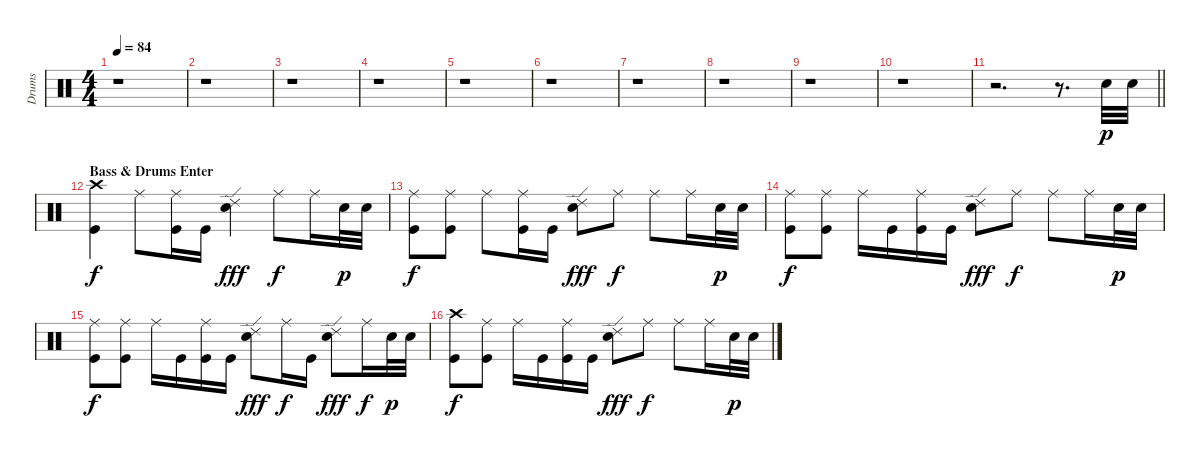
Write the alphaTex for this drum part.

\track ("Drums" "Drums") {instrument percussion}
\staff {score}
\articulation defaults
\ts (4 4)
\tempo 84
\clef neutral
\ks c
r.1{dy p} |
r.1 |
r.1 |
r.1 |
r.1 |
r.1 |
r.1 |
r.1 |
r.1 |
r.1 |
\barLineRight lightlight
r.2{d} r.8{d} "Electric Snare (hit)".32 "Electric Snare (hit)".32 |
\section ("" "Bass & Drums Enter")
("Crash high (hit)" "Kick (hit)").4{dy f} "Ride (middle)".8 ("Ride (middle)" "Kick (hit)").16 "Kick (hit)".16 ("Ride (edge) 2" "Electric Snare (hit)").4{dy fff} "Ride (middle)".8{dy f} "Ride (middle)".16 "Electric Snare (hit)".32{dy p} "Electric Snare (hit)".32 |
("Ride (middle)" "Kick (hit)").8{dy f} ("Ride (middle)" "Kick (hit)").8 "Ride (middle)".8 ("Ride (middle)" "Kick (hit)").16 "Kick (hit)".16 ("Ride (edge) 2" "Electric Snare (hit)").8{dy fff} "Ride (middle)".8{dy f} "Ride (middle)".8 "Ride (middle)".16 "Electric Snare (hit)".32{dy p} "Electric Snare (hit)".32 |
("Ride (middle)" "Kick (hit)").8{dy f} ("Ride (middle)" "Kick (hit)").8 "Ride (middle)".16 "Kick (hit)".16 ("Ride (middle)" "Kick (hit)").16 "Kick (hit)".16 ("Ride (edge) 2" "Electric Snare (hit)").8{dy fff} "Ride (middle)".8{dy f} "Ride (middle)".8 "Ride (middle)".16 "Electric Snare (hit)".32{dy p} "Electric Snare (hit)".32 |
("Ride (middle)" "Kick (hit)").8{dy f} ("Ride (middle)" "Kick (hit)").8 "Ride (middle)".16 "Kick (hit)".16 ("Ride (middle)" "Kick (hit)").16 "Kick (hit)".16 ("Ride (edge) 2" "Electric Snare (hit)").8{dy fff} "Ride (middle)".16{dy f} "Kick (hit)".16 ("Ride (edge) 2" "Electric Snare (hit)").8{dy fff} "Ride (middle)".16{dy f} "Electric Snare (hit)".32{dy p} "Electric Snare (hit)".32 |
("Crash high (hit)" "Kick (hit)").8{dy f} ("Ride (middle)" "Kick (hit)").8 "Ride (middle)".16 "Kick (hit)".16 ("Ride (middle)" "Kick (hit)").16 "Kick (hit)".16 ("Ride (edge) 2" "Electric Snare (hit)").8{dy fff} "Ride (middle)".8{dy f} "Ride (middle)".8 "Ride (middle)".16 "Electric Snare (hit)".32{dy p} "Electric Snare (hit)".32
